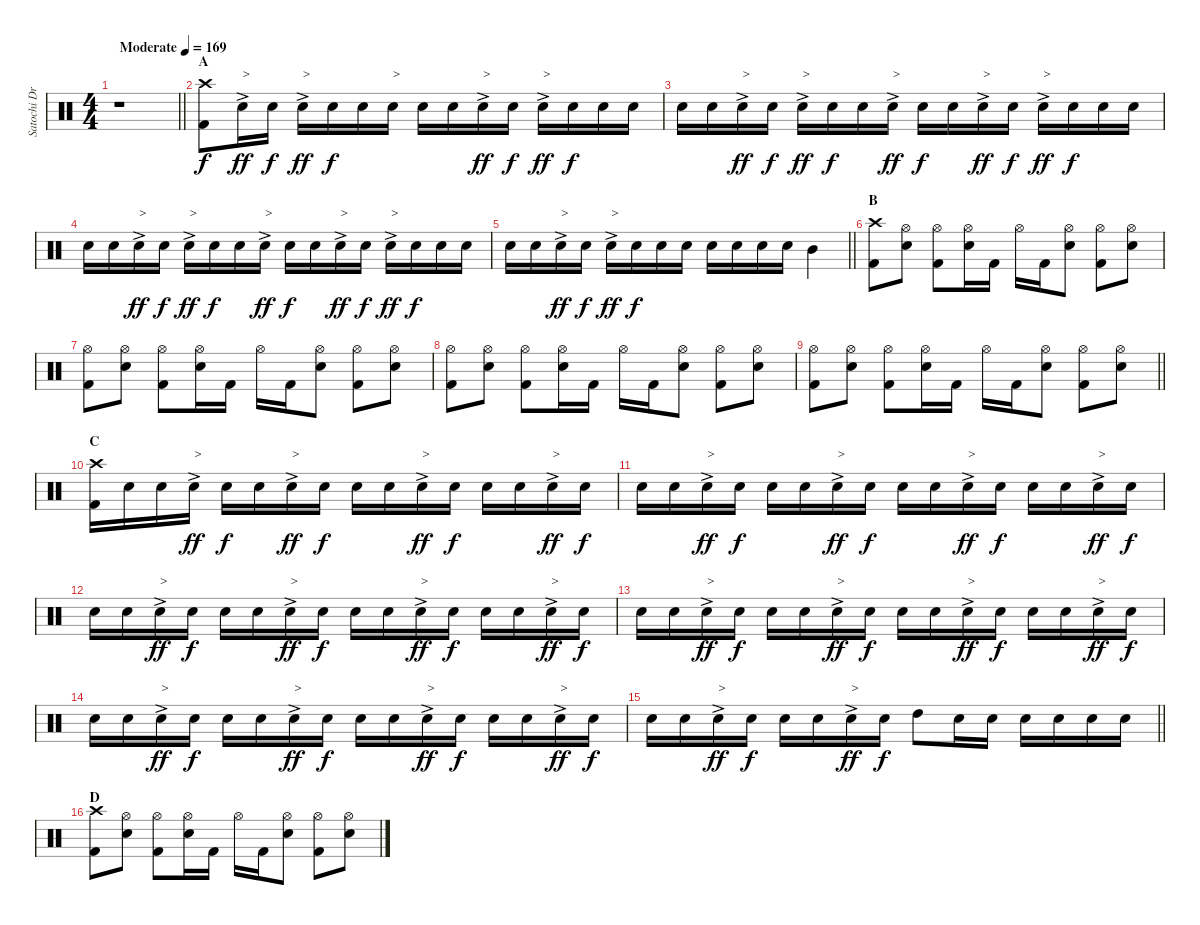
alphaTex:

\track ("Satochi Drums" "Satochi Dr") {instrument percussion}
\staff {score}
\articulation defaults
\ts (4 4)
\tempo (169 "Moderate")
\clef neutral
\barLineRight lightlight
\ks c
r.1{dy f} |
\section ("" "A")
("Crash high (hit)" "Kick (hit) 2").8 "Snare (hit) 2"{ac}.16{txt ">" dy ff} "Snare (hit) 2".16{dy f} "Snare (hit) 2"{ac}.16{txt ">" dy ff} "Snare (hit) 2".16{dy f} "Snare (hit) 2".16 "Snare (hit) 2".16{txt ">"} "Snare (hit) 2".16 "Snare (hit) 2".16 "Snare (hit) 2"{ac}.16{txt ">" dy ff} "Snare (hit) 2".16{dy f} "Snare (hit) 2"{ac}.16{txt ">" dy ff} "Snare (hit) 2".16{dy f} "Snare (hit) 2".16 "Snare (hit) 2".16 |
"Snare (hit) 2".16 "Snare (hit) 2".16 "Snare (hit) 2"{ac}.16{txt ">" dy ff} "Snare (hit) 2".16{dy f} "Snare (hit) 2"{ac}.16{txt ">" dy ff} "Snare (hit) 2".16{dy f} "Snare (hit) 2".16 "Snare (hit) 2"{ac}.16{txt ">" dy ff} "Snare (hit) 2".16{dy f} "Snare (hit) 2".16 "Snare (hit) 2"{ac}.16{txt ">" dy ff} "Snare (hit) 2".16{dy f} "Snare (hit) 2"{ac}.16{txt ">" dy ff} "Snare (hit) 2".16{dy f} "Snare (hit) 2".16 "Snare (hit) 2".16 |
"Snare (hit) 2".16 "Snare (hit) 2".16 "Snare (hit) 2"{ac}.16{txt ">" dy ff} "Snare (hit) 2".16{dy f} "Snare (hit) 2"{ac}.16{txt ">" dy ff} "Snare (hit) 2".16{dy f} "Snare (hit) 2".16 "Snare (hit) 2"{ac}.16{txt ">" dy ff} "Snare (hit) 2".16{dy f} "Snare (hit) 2".16 "Snare (hit) 2"{ac}.16{txt ">" dy ff} "Snare (hit) 2".16{dy f} "Snare (hit) 2"{ac}.16{txt ">" dy ff} "Snare (hit) 2".16{dy f} "Snare (hit) 2".16 "Snare (hit) 2".16 |
\barLineRight lightlight "Snare (hit) 2".16 "Snare (hit) 2".16 "Snare (hit) 2"{ac}.16{txt ">" dy ff} "Snare (hit) 2".16{dy f} "Snare (hit) 2"{ac}.16{txt ">" dy ff} "Snare (hit) 2".16{dy f} "Snare (hit) 2".16 "Snare (hit) 2".16 "Snare (hit) 2".16 "Snare (hit) 2".16 "Snare (hit) 2".16 "Snare (hit) 2".16 "Mid Tom (hit)".4
|
\section ("" "B")
("Crash high (hit)" "Kick (hit) 2").8 ("Hi-Hat (open)" "Snare (hit) 2").8 ("Hi-Hat (open)" "Kick (hit) 2").8 ("Hi-Hat (open)" "Snare (hit) 2").16 "Kick (hit) 2".16 "Hi-Hat (open)".16 "Kick (hit) 2".16 ("Hi-Hat (open)" "Snare (hit) 2").8 ("Hi-Hat (open)" "Kick (hit) 2").8 ("Hi-Hat (open)" "Snare (hit) 2").8 |
("Hi-Hat (open)" "Kick (hit) 2").8 ("Hi-Hat (open)" "Snare (hit) 2").8 ("Hi-Hat (open)" "Kick (hit) 2").8 ("Hi-Hat (open)" "Snare (hit) 2").16 "Kick (hit) 2".16 "Hi-Hat (open)".16 "Kick (hit) 2".16 ("Hi-Hat (open)" "Snare (hit) 2").8 ("Hi-Hat (open)" "Kick (hit) 2").8 ("Hi-Hat (open)" "Snare (hit) 2").8 |
("Hi-Hat (open)" "Kick (hit) 2").8 ("Hi-Hat (open)" "Snare (hit) 2").8 ("Hi-Hat (open)" "Kick (hit) 2").8 ("Hi-Hat (open)" "Snare (hit) 2").16 "Kick (hit) 2".16 "Hi-Hat (open)".16 "Kick (hit) 2".16 ("Hi-Hat (open)" "Snare (hit) 2").8 ("Hi-Hat (open)" "Kick (hit) 2").8 ("Hi-Hat (open)" "Snare (hit) 2").8 |
\barLineRight lightlight
("Hi-Hat (open)" "Kick (hit) 2").8 ("Hi-Hat (open)" "Snare (hit) 2").8 ("Hi-Hat (open)" "Kick (hit) 2").8 ("Hi-Hat (open)" "Snare (hit) 2").16 "Kick (hit) 2".16 "Hi-Hat (open)".16 "Kick (hit) 2".16 ("Hi-Hat (open)" "Snare (hit) 2").8 ("Hi-Hat (open)" "Kick (hit) 2").8 ("Hi-Hat (open)" "Snare (hit) 2").8 |
\section ("" "C")
("Crash high (hit)" "Kick (hit) 2").16 "Snare (hit) 2".16 "Snare (hit) 2".16 "Snare (hit) 2"{ac}.16{txt ">" dy ff} "Snare (hit) 2".16{dy f} "Snare (hit) 2".16 "Snare (hit) 2"{ac}.16{txt ">" dy ff} "Snare (hit) 2".16{dy f} "Snare (hit) 2".16 "Snare (hit) 2".16 "Snare (hit) 2"{ac}.16{txt ">" dy ff} "Snare (hit) 2".16{dy f} "Snare (hit) 2".16 "Snare (hit) 2".16 "Snare (hit) 2"{ac}.16{txt ">" dy ff} "Snare (hit) 2".16{dy f} |
"Snare (hit) 2".16 "Snare (hit) 2".16 "Snare (hit) 2"{ac}.16{txt ">" dy ff} "Snare (hit) 2".16{dy f} "Snare (hit) 2".16 "Snare (hit) 2".16 "Snare (hit) 2"{ac}.16{txt ">" dy ff} "Snare (hit) 2".16{dy f} "Snare (hit) 2".16 "Snare (hit) 2".16 "Snare (hit) 2"{ac}.16{txt ">" dy ff} "Snare (hit) 2".16{dy f} "Snare (hit) 2".16 "Snare (hit) 2".16 "Snare (hit) 2"{ac}.16{txt ">" dy ff} "Snare (hit) 2".16{dy f} |
"Snare (hit) 2".16 "Snare (hit) 2".16 "Snare (hit) 2"{ac}.16{txt ">" dy ff} "Snare (hit) 2".16{dy f} "Snare (hit) 2".16 "Snare (hit) 2".16 "Snare (hit) 2"{ac}.16{txt ">" dy ff} "Snare (hit) 2".16{dy f} "Snare (hit) 2".16 "Snare (hit) 2".16 "Snare (hit) 2"{ac}.16{txt ">" dy ff} "Snare (hit) 2".16{dy f} "Snare (hit) 2".16 "Snare (hit) 2".16 "Snare (hit) 2"{ac}.16{txt ">" dy ff} "Snare (hit) 2".16{dy f} |
"Snare (hit) 2".16 "Snare (hit) 2".16 "Snare (hit) 2"{ac}.16{txt ">" dy ff} "Snare (hit) 2".16{dy f} "Snare (hit) 2".16 "Snare (hit) 2".16 "Snare (hit) 2"{ac}.16{txt ">" dy ff} "Snare (hit) 2".16{dy f} "Snare (hit) 2".16 "Snare (hit) 2".16 "Snare (hit) 2"{ac}.16{txt ">" dy ff} "Snare (hit) 2".16{dy f} "Snare (hit) 2".16 "Snare (hit) 2".16 "Snare (hit) 2"{ac}.16{txt ">" dy ff} "Snare (hit) 2".16{dy f} |
"Snare (hit) 2".16 "Snare (hit) 2".16 "Snare (hit) 2"{ac}.16{txt ">" dy ff} "Snare (hit) 2".16{dy f} "Snare (hit) 2".16 "Snare (hit) 2".16 "Snare (hit) 2"{ac}.16{txt ">" dy ff} "Snare (hit) 2".16{dy f} "Snare (hit) 2".16 "Snare (hit) 2".16 "Snare (hit) 2"{ac}.16{txt ">" dy ff} "Snare (hit) 2".16{dy f} "Snare (hit) 2".16 "Snare (hit) 2".16 "Snare (hit) 2"{ac}.16{txt ">" dy ff} "Snare (hit) 2".16{dy f} |
\barLineRight lightlight "Snare (hit) 2".16 "Snare (hit) 2".16 "Snare (hit) 2"{ac}.16{txt ">" dy ff} "Snare (hit) 2".16{dy f} "Snare (hit) 2".16 "Snare (hit) 2".16 "Snare (hit) 2"{ac}.16{txt ">" dy ff} "Snare (hit) 2".16{dy f} "High Tom (hit)".8 "Snare (hit) 2".16 "Snare (hit) 2".16 "Snare (hit) 2".16 "Snare (hit) 2".16 "Snare (hit) 2".16 "Snare (hit) 2".16
|
\section ("" "D")
("Crash high (hit)" "Kick (hit) 2").8 ("Hi-Hat (open)" "Snare (hit) 2").8 ("Hi-Hat (open)" "Kick (hit) 2").8 ("Hi-Hat (open)" "Snare (hit) 2").16 "Kick (hit) 2".16 "Hi-Hat (open)".16 "Kick (hit) 2".16 ("Hi-Hat (open)" "Snare (hit) 2").8 ("Hi-Hat (open)" "Kick (hit) 2").8 ("Hi-Hat (open)" "Snare (hit) 2").8
